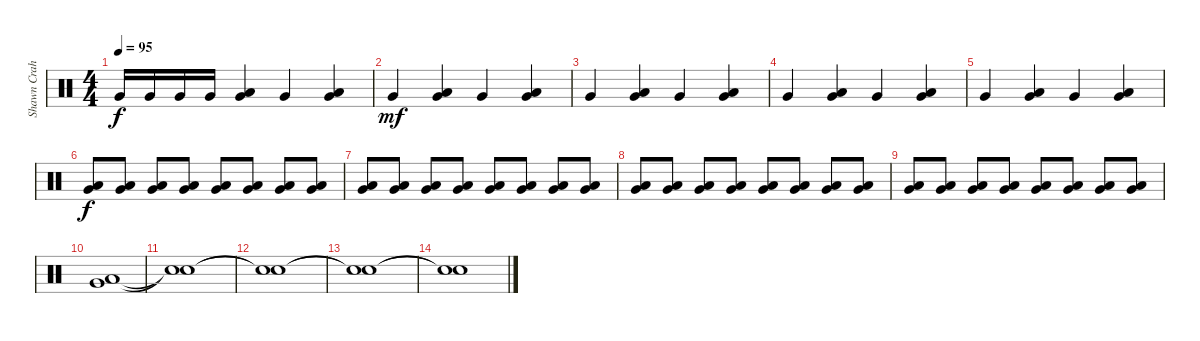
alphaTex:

\track ("Shawn Crahan" "Shawn Crah") {instrument percussion}
\staff {score}
\articulation defaults
\ts (4 4)
\tempo 95
\clef neutral
\ks c "Very Low Tom (hit)".16{dy f} "Very Low Tom (hit)".16 "Very Low Tom (hit)".16 "Very Low Tom (hit)".16
("Very Low Tom (hit)" "Low Floor Tom (hit)").4 "Very Low Tom (hit)".4 ("Very Low Tom (hit)" "Low Floor Tom (hit)").4 |
"Very Low Tom (hit)".4{dy mf} ("Very Low Tom (hit)" "Low Floor Tom (hit)").4 "Very Low Tom (hit)".4 ("Very Low Tom (hit)" "Low Floor Tom (hit)").4 |
"Very Low Tom (hit)".4 ("Very Low Tom (hit)" "Low Floor Tom (hit)").4 "Very Low Tom (hit)".4 ("Very Low Tom (hit)" "Low Floor Tom (hit)").4 |
"Very Low Tom (hit)".4 ("Very Low Tom (hit)" "Low Floor Tom (hit)").4 "Very Low Tom (hit)".4 ("Very Low Tom (hit)" "Low Floor Tom (hit)").4 |
"Very Low Tom (hit)".4 ("Very Low Tom (hit)" "Low Floor Tom (hit)").4 "Very Low Tom (hit)".4 ("Very Low Tom (hit)" "Low Floor Tom (hit)").4 |
("Very Low Tom (hit)" "Low Floor Tom (hit)").8{dy f} ("Very Low Tom (hit)" "Low Floor Tom (hit)").8 ("Very Low Tom (hit)" "Low Floor Tom (hit)").8 ("Very Low Tom (hit)" "Low Floor Tom (hit)").8 ("Very Low Tom (hit)" "Low Floor Tom (hit)").8 ("Very Low Tom (hit)" "Low Floor Tom (hit)").8 ("Very Low Tom (hit)" "Low Floor Tom (hit)").8 ("Very Low Tom (hit)" "Low Floor Tom (hit)").8 |
("Very Low Tom (hit)" "Low Floor Tom (hit)").8 ("Very Low Tom (hit)" "Low Floor Tom (hit)").8 ("Very Low Tom (hit)" "Low Floor Tom (hit)").8 ("Very Low Tom (hit)" "Low Floor Tom (hit)").8 ("Very Low Tom (hit)" "Low Floor Tom (hit)").8 ("Very Low Tom (hit)" "Low Floor Tom (hit)").8 ("Very Low Tom (hit)" "Low Floor Tom (hit)").8 ("Very Low Tom (hit)" "Low Floor Tom (hit)").8 |
("Very Low Tom (hit)" "Low Floor Tom (hit)").8 ("Very Low Tom (hit)" "Low Floor Tom (hit)").8 ("Very Low Tom (hit)" "Low Floor Tom (hit)").8 ("Very Low Tom (hit)" "Low Floor Tom (hit)").8 ("Very Low Tom (hit)" "Low Floor Tom (hit)").8 ("Very Low Tom (hit)" "Low Floor Tom (hit)").8 ("Very Low Tom (hit)" "Low Floor Tom (hit)").8 ("Very Low Tom (hit)" "Low Floor Tom (hit)").8 |
("Very Low Tom (hit)" "Low Floor Tom (hit)").8 ("Very Low Tom (hit)" "Low Floor Tom (hit)").8 ("Very Low Tom (hit)" "Low Floor Tom (hit)").8 ("Very Low Tom (hit)" "Low Floor Tom (hit)").8 ("Very Low Tom (hit)" "Low Floor Tom (hit)").8 ("Very Low Tom (hit)" "Low Floor Tom (hit)").8 ("Very Low Tom (hit)" "Low Floor Tom (hit)").8 ("Very Low Tom (hit)" "Low Floor Tom (hit)").8 |
("Very Low Tom (hit)" "Low Floor Tom (hit)").1 |
("Snare (hit)"{t} "Snare (hit)"{t}).1 |
("Snare (hit)"{t} "Snare (hit)"{t}).1 |
("Snare (hit)"{t} "Snare (hit)"{t}).1 |
("Snare (hit)"{t} "Snare (hit)"{t}).1
